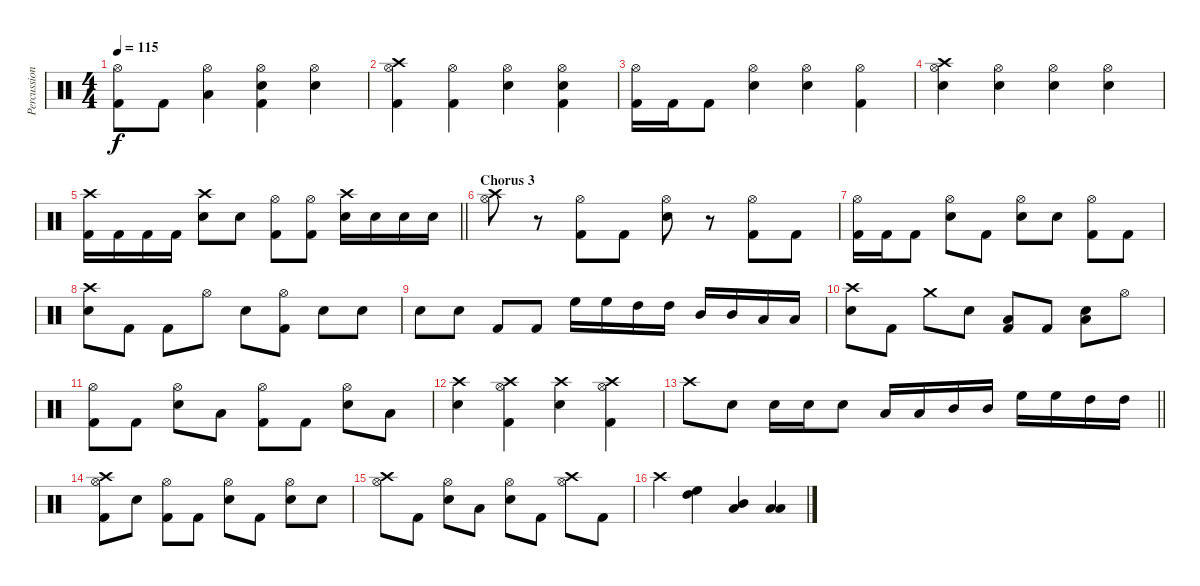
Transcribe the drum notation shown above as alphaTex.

\track ("Percussion" "Percussion") {instrument percussion}
\staff {score}
\articulation defaults
\ts (4 4)
\tempo 115
\clef neutral
\ks c
("Hi-Hat (open)" "Kick (hit) 2").8{dy f} "Kick (hit) 2".8 ("Low Floor Tom (hit)" "Hi-Hat (open)").4 ("Hi-Hat (open)" "Snare (hit) 2" "Kick (hit) 2").4 ("Hi-Hat (open)" "Snare (hit) 2").4 |
("Crash high (hit)" "Hi-Hat (open)" "Kick (hit) 2").4 ("Hi-Hat (open)" "Kick (hit) 2").4 ("Hi-Hat (open)" "Snare (hit) 2").4 ("Hi-Hat (open)" "Snare (hit) 2" "Kick (hit) 2").4 |
("Hi-Hat (open)" "Kick (hit) 2").16 "Kick (hit) 2".16 "Kick (hit) 2".8 ("Hi-Hat (open)" "Snare (hit) 2").4 ("Hi-Hat (open)" "Snare (hit) 2").4 ("Hi-Hat (open)" "Kick (hit) 2").4 |
("Crash high (hit)" "Hi-Hat (open)" "Snare (hit) 2").4 ("Hi-Hat (open)" "Snare (hit) 2").4 ("Hi-Hat (open)" "Snare (hit) 2").4 ("Hi-Hat (open)" "Snare (hit) 2").4 |
\barLineRight lightlight
("Crash high (hit)" "Kick (hit) 2").16 "Kick (hit) 2".16 "Kick (hit) 2".16 "Kick (hit) 2".16 ("Crash high (hit)" "Snare (hit) 2").8 "Snare (hit) 2".8 ("Hi-Hat (open)" "Kick (hit) 2").8 ("Hi-Hat (open)" "Kick (hit) 2").8 ("Crash high (hit)" "Snare (hit) 2").16 "Snare (hit) 2".16 "Snare (hit) 2".16 "Snare (hit) 2".16 |
\section ("" "Chorus 3")
("Crash high (hit)" "Hi-Hat (open)").8 r.8 ("Hi-Hat (open)" "Kick (hit) 2").8 "Kick (hit) 2".8 ("Hi-Hat (open)" "Snare (hit) 2").8 r.8 ("Hi-Hat (open)" "Kick (hit) 2").8 "Kick (hit) 2".8 |
("Hi-Hat (open)" "Kick (hit) 2").16 "Kick (hit) 2".16 "Kick (hit) 2".8 ("Hi-Hat (open)" "Snare (hit) 2").8 "Kick (hit) 2".8 ("Hi-Hat (open)" "Snare (hit) 2").8 "Snare (hit) 2".8 ("Hi-Hat (open)" "Kick (hit) 2").8 "Kick (hit) 2".8 |
("Crash high (hit)" "Snare (hit) 2").8 "Kick (hit) 2".8 "Kick (hit) 2".8 "Hi-Hat (open)".8 "Snare (hit) 2".8 ("Hi-Hat (open)" "Kick (hit) 2").8 "Snare (hit) 2".8 "Snare (hit) 2".8 |
"Snare (hit) 2".8 "Snare (hit) 2".8 "Kick (hit) 2".8 "Kick (hit) 2".8 "High Floor Tom (hit)".16 "High Floor Tom (hit)".16 "High Tom (hit)".16 "High Tom (hit)".16 "Mid Tom (hit)".16 "Mid Tom (hit)".16 "Low Tom (hit)".16 "Low Tom (hit)".16 |
("Crash high (hit)" "Snare (hit) 2").8 "Kick (hit) 2".8 "Crash medium (hit)".8 "Snare (hit) 2".8 ("Low Floor Tom (hit)" "Kick (hit) 2").8 "Kick (hit) 2".8 ("Low Tom (hit)" "Snare (hit) 2").8 "Hi-Hat (open)".8 |
("Hi-Hat (open)" "Kick (hit) 2").8 "Kick (hit) 2".8 ("Hi-Hat (open)" "Snare (hit) 2").8 "Low Floor Tom (hit)".8 ("Hi-Hat (open)" "Kick (hit) 2").8 "Kick (hit) 2".8 ("Hi-Hat (open)" "Snare (hit) 2").8 "Low Floor Tom (hit)".8 |
("Crash high (hit)" "Snare (hit) 2").4 ("Crash high (hit)" "Hi-Hat (open)" "Kick (hit) 2").4 ("Crash high (hit)" "Snare (hit) 2").4 ("Crash high (hit)" "Hi-Hat (open)" "Kick (hit) 2").4 |
\barLineRight lightlight "Crash high (hit)".8 "Snare (hit) 2".8 "Snare (hit) 2".16 "Snare (hit) 2".16 "Snare (hit) 2".8 "Low Tom (hit)".16 "Low Tom (hit)".16 "Mid Tom (hit)".16 "Mid Tom (hit)".16 "High Floor Tom (hit)".16 "High Floor Tom (hit)".16 "High Tom (hit)".16 "High Tom (hit)".16
|
("Crash high (hit)" "Hi-Hat (open)" "Kick (hit) 2").8 "Snare (hit) 2".8 ("Hi-Hat (open)" "Kick (hit) 2").8 "Kick (hit) 2".8 ("Hi-Hat (open)" "Snare (hit) 2").8 "Kick (hit) 2".8 ("Hi-Hat (open)" "Snare (hit) 2").8 "Snare (hit) 2".8 |
("Crash high (hit)" "Hi-Hat (open)").8 "Kick (hit) 2".8 ("Hi-Hat (open)" "Snare (hit) 2").8 "Low Floor Tom (hit)".8 ("Hi-Hat (open)" "Snare (hit) 2").8 "Kick (hit) 2".8 ("Crash high (hit)" "Hi-Hat (open)").8 "Kick (hit) 2".8 |
"Crash high (hit)".4 ("High Floor Tom (hit)" "High Tom (hit)").4 ("Mid Tom (hit)" "Low Tom (hit)").4 ("Low Tom (hit)" "Low Floor Tom (hit)").4
